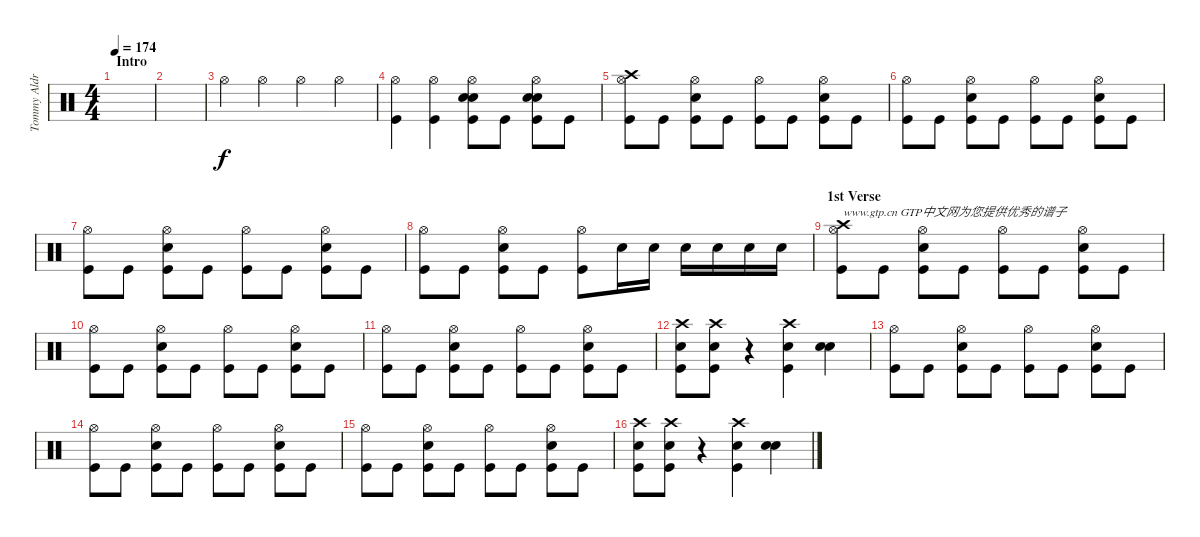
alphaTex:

\track ("Tommy Aldrige" "Tommy Aldr") {instrument percussion}
\staff {score}
\articulation defaults
\ts (4 4)
\section ("" "Intro")
\tempo 174
\clef neutral
\ks c
|
|
"Hi-Hat (open)".4 "Hi-Hat (open)".4 "Hi-Hat (open)".4 "Hi-Hat (open)".4 |
("Hi-Hat (open)" "Kick (hit)").4 ("Hi-Hat (open)" "Kick (hit)").4 ("Hi-Hat (open)" "Snare (hit) 2" "Snare (hit) 2" "Kick (hit)").8{bd 480} "Kick (hit)".8 ("Hi-Hat (open)" "Snare (hit) 2" "Snare (hit) 2" "Kick (hit)").8{bd 480} "Kick (hit)".8 |
("Hi-Hat (open)" "Kick (hit)" "Crash high (hit)").8 "Kick (hit)".8 ("Hi-Hat (open)" "Kick (hit)" "Snare (hit) 2").8 "Kick (hit)".8 ("Hi-Hat (open)" "Kick (hit)").8 "Kick (hit)".8 ("Hi-Hat (open)" "Kick (hit)" "Snare (hit) 2").8 "Kick (hit)".8 |
("Hi-Hat (open)" "Kick (hit)").8 "Kick (hit)".8 ("Hi-Hat (open)" "Kick (hit)" "Snare (hit) 2").8 "Kick (hit)".8 ("Hi-Hat (open)" "Kick (hit)").8 "Kick (hit)".8 ("Hi-Hat (open)" "Kick (hit)" "Snare (hit) 2").8 "Kick (hit)".8 |
("Hi-Hat (open)" "Kick (hit)").8 "Kick (hit)".8 ("Hi-Hat (open)" "Kick (hit)" "Snare (hit) 2").8 "Kick (hit)".8 ("Hi-Hat (open)" "Kick (hit)").8 "Kick (hit)".8 ("Hi-Hat (open)" "Kick (hit)" "Snare (hit) 2").8 "Kick (hit)".8 |
("Hi-Hat (open)" "Kick (hit)").8 "Kick (hit)".8 ("Hi-Hat (open)" "Kick (hit)" "Snare (hit) 2").8 "Kick (hit)".8 ("Hi-Hat (open)" "Kick (hit)").8 "Snare (hit) 2".16 "Snare (hit) 2".16 "Snare (hit) 2".16 "Snare (hit) 2".16 "Snare (hit) 2".16 "Snare (hit) 2".16 |
\section ("" "1st Verse")
("Hi-Hat (open)" "Kick (hit)" "Crash high (hit)").8{txt "www.gtp.cn GTP中文网为您提供优秀的谱子"} "Kick (hit)".8 ("Hi-Hat (open)" "Kick (hit)" "Snare (hit) 2").8 "Kick (hit)".8 ("Hi-Hat (open)" "Kick (hit)").8 "Kick (hit)".8 ("Hi-Hat (open)" "Kick (hit)" "Snare (hit) 2").8 "Kick (hit)".8 |
("Hi-Hat (open)" "Kick (hit)").8 "Kick (hit)".8 ("Hi-Hat (open)" "Kick (hit)" "Snare (hit) 2").8 "Kick (hit)".8 ("Hi-Hat (open)" "Kick (hit)").8 "Kick (hit)".8 ("Hi-Hat (open)" "Kick (hit)" "Snare (hit) 2").8 "Kick (hit)".8 |
("Hi-Hat (open)" "Kick (hit)").8 "Kick (hit)".8 ("Hi-Hat (open)" "Kick (hit)" "Snare (hit) 2").8 "Kick (hit)".8 ("Hi-Hat (open)" "Kick (hit)").8 "Kick (hit)".8 ("Hi-Hat (open)" "Kick (hit)" "Snare (hit) 2").8 "Kick (hit)".8 |
("Crash high (hit)" "Kick (hit)" "Snare (hit) 2").8 ("Crash high (hit)" "Kick (hit)" "Snare (hit) 2").8 r.4 ("Crash high (hit)" "Kick (hit)" "Snare (hit) 2").4 ("Snare (hit) 2" "Snare (hit) 2").4{bu 240} |
("Hi-Hat (open)" "Kick (hit)").8 "Kick (hit)".8 ("Hi-Hat (open)" "Kick (hit)" "Snare (hit) 2").8 "Kick (hit)".8 ("Hi-Hat (open)" "Kick (hit)").8 "Kick (hit)".8 ("Hi-Hat (open)" "Kick (hit)" "Snare (hit) 2").8 "Kick (hit)".8 |
("Hi-Hat (open)" "Kick (hit)").8 "Kick (hit)".8 ("Hi-Hat (open)" "Kick (hit)" "Snare (hit) 2").8 "Kick (hit)".8 ("Hi-Hat (open)" "Kick (hit)").8 "Kick (hit)".8 ("Hi-Hat (open)" "Kick (hit)" "Snare (hit) 2").8 "Kick (hit)".8 |
("Hi-Hat (open)" "Kick (hit)").8 "Kick (hit)".8 ("Hi-Hat (open)" "Kick (hit)" "Snare (hit) 2").8 "Kick (hit)".8 ("Hi-Hat (open)" "Kick (hit)").8 "Kick (hit)".8 ("Hi-Hat (open)" "Kick (hit)" "Snare (hit) 2").8 "Kick (hit)".8 |
("Crash high (hit)" "Kick (hit)" "Snare (hit) 2").8 ("Crash high (hit)" "Kick (hit)" "Snare (hit) 2").8 r.4 ("Crash high (hit)" "Kick (hit)" "Snare (hit) 2").4 ("Snare (hit) 2" "Snare (hit) 2").4{bu 240}
